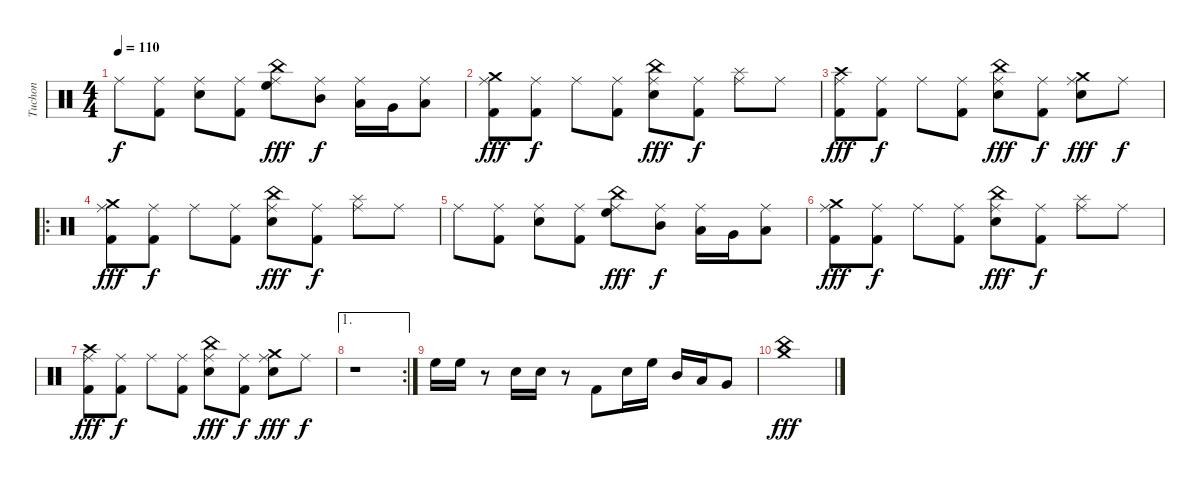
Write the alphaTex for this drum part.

\track ("Tuchon" "Tuchon") {instrument percussion}
\staff {score}
\articulation defaults
\ts (4 4)
\tempo 110
\clef neutral
\ks c "Ride (middle)".8{dy f}
("Ride (middle)" "Kick (hit) 2").8 ("Ride (middle)" "Electric Snare (hit)").8 ("Ride (middle)" "Kick (hit) 2").8 ("China (hit)" "Ride (middle)" "High Floor Tom (hit)").8{dy fff} ("Ride (middle)" "Mid Tom (hit)").8{dy f} ("Ride (middle)" "Low Tom (hit)").16 "Very Low Tom (hit)".16 ("Ride (middle)" "Low Floor Tom (hit)").8 |
("Crash medium (hit)" "Ride (middle)" "Kick (hit) 2").8{dy fff} ("Ride (middle)" "Kick (hit) 2").8{dy f} "Ride (middle)".8 ("Ride (middle)" "Kick (hit) 2").8 ("China (hit)" "Ride (middle)" "Electric Snare (hit)").8{dy fff} ("Ride (middle)" "Kick (hit) 2").8{dy f} ("Splash (hit)" "Ride (middle)").8 "Ride (middle)".8 |
("Crash high (hit)" "Ride (middle)" "Kick (hit) 2").8{dy fff} ("Ride (middle)" "Kick (hit) 2").8{dy f} "Ride (middle)".8 ("Ride (middle)" "Kick (hit) 2").8 ("China (hit)" "Ride (middle)" "Electric Snare (hit)").8{dy fff} ("Ride (middle)" "Kick (hit) 2").8{dy f} ("Crash medium (hit)" "Ride (middle)" "Electric Snare (hit)").8{dy fff} "Ride (middle)".8{dy f} |
\ro
("Crash medium (hit)" "Ride (middle)" "Kick (hit) 2").8{dy fff} ("Ride (middle)" "Kick (hit) 2").8{dy f} "Ride (middle)".8 ("Ride (middle)" "Kick (hit) 2").8 ("China (hit)" "Ride (middle)" "Electric Snare (hit)").8{dy fff} ("Ride (middle)" "Kick (hit) 2").8{dy f} ("Splash (hit)" "Ride (middle)").8 "Ride (middle)".8 |
"Ride (middle)".8 ("Ride (middle)" "Kick (hit) 2").8 ("Ride (middle)" "Electric Snare (hit)").8 ("Ride (middle)" "Kick (hit) 2").8 ("China (hit)" "Ride (middle)" "High Floor Tom (hit)").8{dy fff} ("Ride (middle)" "Mid Tom (hit)").8{dy f} ("Ride (middle)" "Low Tom (hit)").16 "Very Low Tom (hit)".16 ("Ride (middle)" "Low Floor Tom (hit)").8 |
("Crash medium (hit)" "Ride (middle)" "Kick (hit) 2").8{dy fff} ("Ride (middle)" "Kick (hit) 2").8{dy f} "Ride (middle)".8 ("Ride (middle)" "Kick (hit) 2").8 ("China (hit)" "Ride (middle)" "Electric Snare (hit)").8{dy fff} ("Ride (middle)" "Kick (hit) 2").8{dy f} ("Splash (hit)" "Ride (middle)").8 "Ride (middle)".8 |
("Crash high (hit)" "Ride (middle)" "Kick (hit) 2").8{dy fff} ("Ride (middle)" "Kick (hit) 2").8{dy f} "Ride (middle)".8 ("Ride (middle)" "Kick (hit) 2").8 ("China (hit)" "Ride (middle)" "Electric Snare (hit)").8{dy fff} ("Ride (middle)" "Kick (hit) 2").8{dy f} ("Crash medium (hit)" "Ride (middle)" "Electric Snare (hit)").8{dy fff} "Ride (middle)".8{dy f} |
\ae 1
\rc 2
r.1 |
"High Floor Tom (hit)".16 "High Floor Tom (hit)".16 r.8 "Electric Snare (hit)".16 "Electric Snare (hit)".16 r.8 "Kick (hit) 2".8 "Electric Snare (hit)".16 "High Floor Tom (hit)".16 "Mid Tom (hit)".16 "Low Tom (hit)".16 "Very Low Tom (hit)".8 |
("China (hit)" "Crash medium (hit)").1{dy fff}
